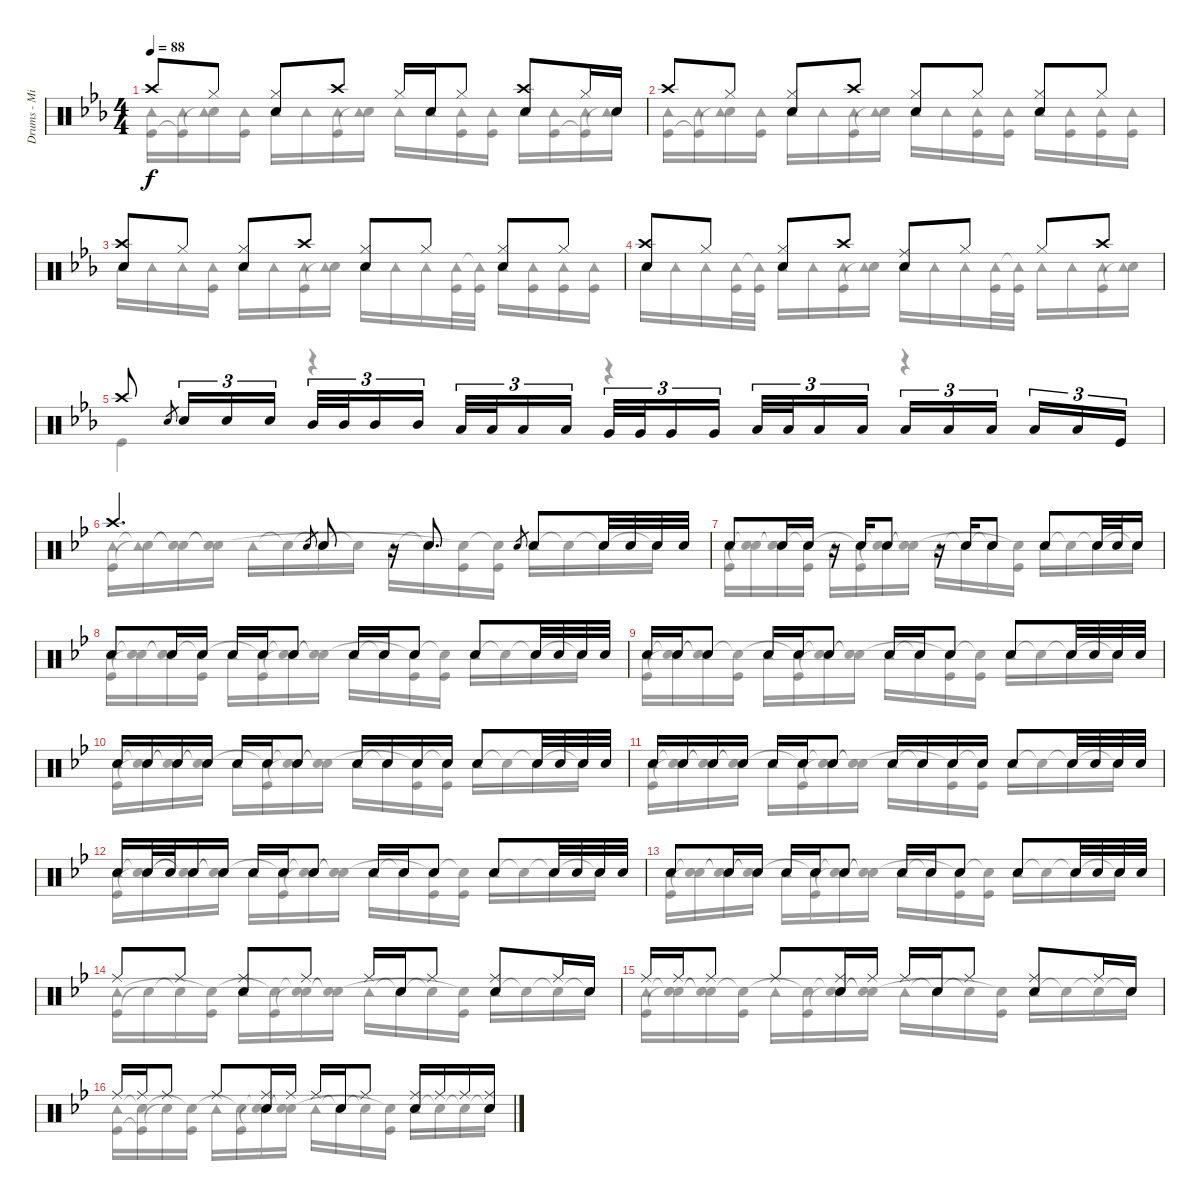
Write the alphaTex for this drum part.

\track ("Drums - Mike Portnoy" "Drums - Mi") {instrument percussion}
\staff {score}
\articulation defaults
\voice
\ts (4 4)
\tempo 88
\clef neutral
\ks eb "Crash high (hit)".8{dy f} "Hi-Hat (closed)".8
("Hi-Hat (closed)" "Snare (hit) 2").8 "Crash high (hit)".8 "Hi-Hat (closed)".16 "Snare (hit) 2".16 "Hi-Hat (closed)".8 ("Crash high (hit)" "Snare (hit) 2").8 "Hi-Hat (closed)".16 "Snare (hit) 2".16 |
"Crash high (hit)".8 "Hi-Hat (closed)".8 ("Hi-Hat (closed)" "Snare (hit) 2").8 "Crash high (hit)".8 ("Hi-Hat (closed)" "Snare (hit) 2").8 "Hi-Hat (closed)".8 ("Hi-Hat (closed)" "Snare (hit) 2").8 "Hi-Hat (closed)".8 |
("Crash high (hit)" "Snare (hit) 2").8 "Hi-Hat (closed)".8 ("Hi-Hat (closed)" "Snare (hit) 2").8 "Crash high (hit)".8 ("Hi-Hat (closed)" "Snare (hit) 2").8 "Hi-Hat (closed)".8 ("Hi-Hat (closed)" "Snare (hit) 2").8 "Hi-Hat (closed)".8 |
("Crash high (hit)" "Snare (hit) 2").8 "Hi-Hat (closed)".8 ("Hi-Hat (closed)" "Snare (hit) 2").8 "Crash high (hit)".8 ("Ride (middle)" "Snare (hit) 2").8 "Hi-Hat (closed)".8 "Hi-Hat (closed)".8 "Crash high (hit)".8 |
"Crash high (hit)".8 "Snare (hit) 2".8{gr} "Snare (hit) 2".16{tu (3 2)} "Snare (hit) 2".16{tu (3 2)} "Snare (hit) 2".16{tu (3 2)} "Mid Tom (hit)".32{tu (3 2)} "Mid Tom (hit)".32{tu (3 2)} "Mid Tom (hit)".16{tu (3 2)} "Mid Tom (hit)".16{tu (3 2) beam splitsecondary} "Low Tom (hit)".32{tu (3 2)} "Low Tom (hit)".32{tu (3 2)} "Low Tom (hit)".16{tu (3 2)} "Low Tom (hit)".16{tu (3 2)} "Very Low Tom (hit)".32{tu (3 2)} "Very Low Tom (hit)".32{tu (3 2)} "Very Low Tom (hit)".16{tu (3 2)} "Very Low Tom (hit)".16{tu (3 2) beam splitsecondary} "Low Floor Tom (hit)".32{tu (3 2)} "Low Floor Tom (hit)".32{tu (3 2)} "Low Floor Tom (hit)".16{tu (3 2)} "Low Floor Tom (hit)".16{tu (3 2)} "Low Floor Tom (hit)".16{tu (3 2)} "Low Floor Tom (hit)".16{tu (3 2)} "Low Floor Tom (hit)".16{tu (3 2) beam splitsecondary} "Low Floor Tom (hit)".16{tu (3 2)} "Low Floor Tom (hit)".16{tu (3 2)} "Kick (hit)".16{tu (3 2)} |
\ks bb "Crash high (hit)".4{d volume 10} "Snare (hit) 2".8{gr} "Snare (hit) 2".8
r.16 "Snare (hit) 2".8{d} "Snare (hit) 2".8{gr} "Snare (hit) 2".8 "Snare (hit) 2".32 "Snare (hit) 2".32 "Snare (hit) 2".32 "Snare (hit)".32 |
"Snare (hit) 2".8 "Snare (hit) 2".16 "Snare (hit) 2".16 r.16 "Snare (hit) 2".16 "Snare (hit) 2".8 r.16 "Snare (hit) 2".16 "Snare (hit) 2".8 "Snare (hit) 2".8 "Snare (hit) 2".32 "Snare (hit) 2".32 "Snare (hit) 2".16 |
"Snare (hit) 2".8 "Snare (hit) 2".16 "Snare (hit) 2".16 "Snare (hit) 2".16 "Snare (hit) 2".16 "Snare (hit) 2".8 "Snare (hit) 2".16 "Snare (hit) 2".16 "Snare (hit) 2".8 "Snare (hit) 2".8 "Snare (hit) 2".32 "Snare (hit) 2".32 "Snare (hit) 2".32 "Snare (hit) 2".32 |
"Snare (hit) 2".16 "Snare (hit) 2".16 "Snare (hit) 2".8 "Snare (hit) 2".16 "Snare (hit) 2".16 "Snare (hit) 2".8 "Snare (hit) 2".16 "Snare (hit) 2".16 "Snare (hit) 2".8 "Snare (hit) 2".8 "Snare (hit) 2".32 "Snare (hit) 2".32 "Snare (hit) 2".32 "Snare (hit) 2".32 |
"Snare (hit) 2".16 "Snare (hit) 2".16 "Snare (hit) 2".16 "Snare (hit) 2".16 "Snare (hit) 2".16 "Snare (hit) 2".16 "Snare (hit) 2".8 "Snare (hit) 2".16 "Snare (hit) 2".16 "Snare (hit) 2".16 "Snare (hit) 2".16 "Snare (hit) 2".8 "Snare (hit) 2".32 "Snare (hit) 2".32 "Snare (hit) 2".32 "Snare (hit) 2".32 |
"Snare (hit) 2".16 "Snare (hit) 2".16 "Snare (hit) 2".16 "Snare (hit) 2".16 "Snare (hit) 2".16 "Snare (hit) 2".16 "Snare (hit) 2".8 "Snare (hit) 2".16 "Snare (hit) 2".16 "Snare (hit) 2".16 "Snare (hit) 2".16 "Snare (hit) 2".8 "Snare (hit) 2".32 "Snare (hit) 2".32 "Snare (hit) 2".32 "Snare (hit) 2".32 |
"Snare (hit) 2".16 "Snare (hit) 2".32 "Snare (hit) 2".32 "Snare (hit) 2".16 "Snare (hit) 2".16 "Snare (hit) 2".16 "Snare (hit) 2".16 "Snare (hit) 2".8 "Snare (hit) 2".16 "Snare (hit) 2".16 "Snare (hit) 2".8 "Snare (hit) 2".8 "Snare (hit) 2".32 "Snare (hit) 2".32 "Snare (hit) 2".32 "Snare (hit) 2".32 |
"Snare (hit) 2".8 "Snare (hit) 2".16 "Snare (hit) 2".16 "Snare (hit) 2".16 "Snare (hit) 2".16 "Snare (hit) 2".8 "Snare (hit) 2".16 "Snare (hit) 2".16 "Snare (hit) 2".8 "Snare (hit) 2".8 "Snare (hit) 2".32 "Snare (hit) 2".32 "Snare (hit) 2".32 "Snare (hit) 2".32 |
"Ride (middle)".8 "Ride (middle)".8 ("Ride (middle)" "Snare (hit) 2").8 "Ride (middle)".8 "Ride (middle)".16 "Snare (hit) 2".16 "Ride (middle)".8 ("Ride (middle)" "Snare (hit) 2").8 "Ride (middle)".16 "Snare (hit) 2".16 |
"Ride (middle)".16 "Ride (middle)".16 "Ride (middle)".8 "Ride (middle)".8 ("Ride (middle)" "Snare (hit) 2").16 "Ride (middle)".16 "Ride (middle)".16 "Snare (hit) 2".16 "Ride (middle)".8 ("Ride (middle)" "Snare (hit) 2").8 "Ride (middle)".16 "Snare (hit) 2".16 |
"Ride (middle)".16 "Ride (middle)".16 "Ride (middle)".8 "Ride (middle)".8 ("Ride (middle)" "Snare (hit) 2").16 "Ride (middle)".16 "Ride (middle)".16 "Snare (hit) 2".16 "Ride (middle)".8 ("Ride (middle)" "Snare (hit) 2").16 "Ride (middle)".16 "Ride (middle)".16 ("Ride (middle)" "Snare (hit) 2").16
\voice
\clef neutral
\ottava regular
\simile none
\ks eb
("Kick (hit)" "Tambourine (hit)").16{dy f} ("Kick (hit)"{t} "Tambourine (hit)").16 ("Snare (hit)"{t} "Tambourine (hit)").16 ("Kick (hit)" "Tambourine (hit)").16 "Tambourine (hit)".16 "Tambourine (hit)".16 ("Kick (hit)" "Tambourine (hit)").16 ("Snare (hit)"{t} "Tambourine (hit)").16 "Tambourine (hit)".16 "Tambourine (hit)".16 ("Kick (hit)" "Tambourine (hit)").16 ("Kick (hit)" "Tambourine (hit)").16 "Tambourine (hit)".16 ("Kick (hit)" "Tambourine (hit)").16 ("Kick (hit)"{t} "Tambourine (hit)").16 ("Snare (hit)"{t} "Tambourine (hit)").16 |
("Kick (hit)" "Tambourine (hit)").16 ("Kick (hit)"{t} "Tambourine (hit)").16 ("Snare (hit)"{t} "Tambourine (hit)").16 ("Kick (hit)" "Tambourine (hit)").16 "Tambourine (hit)".16 "Tambourine (hit)".16 ("Kick (hit)" "Tambourine (hit)").16 ("Snare (hit)"{t} "Tambourine (hit)").16 "Tambourine (hit)".16 "Tambourine (hit)".16 ("Kick (hit)" "Tambourine (hit)").16 ("Kick (hit)" "Tambourine (hit)").16 "Tambourine (hit)".16 ("Kick (hit)" "Tambourine (hit)").16 ("Kick (hit)" "Tambourine (hit)").16 ("Kick (hit)" "Tambourine (hit)").16 |
"Tambourine (hit)".16 "Tambourine (hit)".16 "Tambourine (hit)".16 ("Kick (hit)" "Tambourine (hit)").16 "Tambourine (hit)".16 "Tambourine (hit)".16 ("Kick (hit)" "Tambourine (hit)").16 ("Snare (hit)"{t} "Tambourine (hit)").16 "Tambourine (hit)".16 "Tambourine (hit)".16 "Tambourine (hit)".16 ("Kick (hit)" "Tambourine (hit)").32 ("Kick (hit)" "Tambourine (hit)"{t}).32 "Tambourine (hit)".16 ("Kick (hit)" "Tambourine (hit)").16 ("Kick (hit)" "Tambourine (hit)").16 ("Kick (hit)" "Tambourine (hit)").16 |
"Tambourine (hit)".16 "Tambourine (hit)".16 "Tambourine (hit)".16 ("Kick (hit)" "Tambourine (hit)").32 ("Kick (hit)" "Tambourine (hit)"{t}).32 "Tambourine (hit)".16 "Tambourine (hit)".16 ("Kick (hit)" "Tambourine (hit)").16 ("Snare (hit)"{t} "Tambourine (hit)").16 "Tambourine (hit)".16 "Tambourine (hit)".16 "Tambourine (hit)".16 ("Kick (hit)" "Tambourine (hit)").32 ("Kick (hit)" "Tambourine (hit)"{t}).32 "Tambourine (hit)".16 "Tambourine (hit)".16 ("Kick (hit)" "Tambourine (hit)").16 ("Snare (hit)"{t} "Tambourine (hit)").16 |
"Kick (hit)".4 r.4 r.4 r.4 |
\ks bb
("Kick (hit)" "Tambourine (hit)").16 ("Snare (hit)"{t} "Tambourine (hit)"{t}).16 ("Snare (hit)"{t} "Snare (hit)"{t}).16 ("Snare (hit)"{t} "Snare (hit)"{t}).16 "Tambourine (hit)".16 "Snare (hit)"{t}.16 "Snare (hit)"{t}.16 "Snare (hit)"{t}.16 "Tambourine (hit)".16 "Snare (hit)"{t}.16 ("Kick (hit)" "Snare (hit)"{t}).16 ("Kick (hit)" "Snare (hit)"{t}).16 "Tambourine (hit)".16 "Snare (hit)"{t}.16 "Snare (hit)"{t}.16 "Snare (hit)"{t}.16 |
("Kick (hit)" "Tambourine (hit)").16 ("Snare (hit)"{t} "Snare (hit)"{t}).16 ("Snare (hit)"{t} "Snare (hit)"{t}).16 ("Kick (hit)" "Snare (hit)"{t}).16 "Tambourine (hit)".16 ("Kick (hit)" "Snare (hit)"{t}).16 ("Snare (hit)"{t} "Snare (hit)"{t}).16 ("Snare (hit)"{t} "Snare (hit)"{t}).16 "Tambourine (hit)".16 "Snare (hit)"{t}.16 "Snare (hit)"{t}.16 ("Kick (hit)" "Snare (hit)"{t}).16 "Tambourine (hit)".16 "Snare (hit)"{t}.16 "Snare (hit)"{t}.16 "Snare (hit)"{t}.16 |
("Kick (hit)" "Tambourine (hit)").16 ("Snare (hit)"{t} "Snare (hit)"{t}).16 ("Snare (hit)"{t} "Snare (hit)"{t}).16 ("Kick (hit)" "Snare (hit)"{t}).16 "Tambourine (hit)".16 ("Kick (hit)" "Snare (hit)"{t}).16 ("Snare (hit)"{t} "Snare (hit)"{t}).16 ("Snare (hit)"{t} "Snare (hit)"{t}).16 "Tambourine (hit)".16 "Snare (hit)"{t}.16 ("Kick (hit)" "Snare (hit)"{t}).16 ("Kick (hit)" "Snare (hit)"{t}).16 "Tambourine (hit)".16 "Snare (hit)"{t}.16 "Snare (hit)"{t}.16 "Snare (hit)"{t}.16 |
("Kick (hit)" "Tambourine (hit)").16 ("Snare (hit)"{t} "Snare (hit)"{t}).16 ("Snare (hit)"{t} "Snare (hit)"{t}).16 ("Kick (hit)" "Snare (hit)"{t}).16 "Tambourine (hit)".16 ("Kick (hit)" "Snare (hit)"{t}).16 ("Snare (hit)"{t} "Snare (hit)"{t}).16 ("Snare (hit)"{t} "Snare (hit)"{t}).16 "Tambourine (hit)".16 "Snare (hit)"{t}.16 ("Kick (hit)" "Snare (hit)"{t}).16 ("Kick (hit)" "Snare (hit)"{t}).16 "Tambourine (hit)".16 "Snare (hit)"{t}.16 "Snare (hit)"{t}.16 "Snare (hit)"{t}.16 |
("Kick (hit)" "Tambourine (hit)").16 ("Snare (hit)"{t} "Snare (hit)"{t}).16 ("Snare (hit)"{t} "Snare (hit)"{t}).16 ("Snare (hit)"{t} "Snare (hit)"{t}).16 "Tambourine (hit)".16 ("Kick (hit)" "Snare (hit)"{t}).16 ("Snare (hit)"{t} "Snare (hit)"{t}).16 ("Snare (hit)"{t} "Snare (hit)"{t}).16 "Tambourine (hit)".16 "Snare (hit)"{t}.16 ("Kick (hit)" "Snare (hit)"{t}).16 ("Kick (hit)" "Snare (hit)"{t}).16 "Tambourine (hit)".16 "Snare (hit)"{t}.16 "Snare (hit)"{t}.16 "Snare (hit)"{t}.16 |
("Kick (hit)" "Tambourine (hit)").16 ("Snare (hit)"{t} "Snare (hit)"{t}).16 ("Snare (hit)"{t} "Snare (hit)"{t}).16 ("Snare (hit)"{t} "Snare (hit)"{t}).16 "Tambourine (hit)".16 ("Kick (hit)" "Snare (hit)"{t}).16 ("Snare (hit)"{t} "Snare (hit)"{t}).16 ("Snare (hit)"{t} "Snare (hit)"{t}).16 "Tambourine (hit)".16 "Snare (hit)"{t}.16 ("Kick (hit)" "Snare (hit)"{t}).16 ("Kick (hit)" "Snare (hit)"{t}).16 "Tambourine (hit)".16 "Snare (hit)"{t}.16 "Snare (hit)"{t}.16 "Snare (hit)"{t}.16 |
("Kick (hit)" "Tambourine (hit)").16 ("Snare (hit)"{t} "Snare (hit)"{t}).16 ("Snare (hit)"{t} "Snare (hit)"{t}).16 ("Snare (hit)"{t} "Snare (hit)"{t}).16 "Tambourine (hit)".16 ("Kick (hit)" "Snare (hit)"{t}).16 ("Snare (hit)"{t} "Snare (hit)"{t}).16 ("Snare (hit)"{t} "Snare (hit)"{t}).16 "Tambourine (hit)".16 "Snare (hit)"{t}.16 ("Kick (hit)" "Snare (hit)"{t}).16 ("Kick (hit)" "Snare (hit)"{t}).16 "Tambourine (hit)".16 "Snare (hit)"{t}.16 "Snare (hit)"{t}.16 "Snare (hit)"{t}.16 |
("Kick (hit)" "Tambourine (hit)").16 ("Snare (hit)"{t} "Snare (hit)"{t}).16 ("Snare (hit)"{t} "Snare (hit)"{t}).16 ("Snare (hit)"{t} "Snare (hit)"{t}).16 "Tambourine (hit)".16 ("Kick (hit)" "Snare (hit)"{t}).16 ("Snare (hit)"{t} "Snare (hit)"{t}).16 ("Snare (hit)"{t} "Snare (hit)"{t}).16 "Tambourine (hit)".16 "Snare (hit)"{t}.16 ("Kick (hit)" "Snare (hit)"{t}).16 ("Kick (hit)" "Snare (hit)"{t}).16 "Tambourine (hit)".16 "Snare (hit)"{t}.16 "Snare (hit)"{t}.16 "Snare (hit)"{t}.16 |
("Kick (hit)" "Tambourine (hit)").16 "Snare (hit)"{t}.16 "Snare (hit)"{t}.16 ("Kick (hit)" "Snare (hit)"{t}).16 "Tambourine (hit)".16 ("Kick (hit)" "Snare (hit)"{t}).16 ("Snare (hit)"{t} "Snare (hit)"{t}).16 ("Snare (hit)"{t} "Snare (hit)"{t}).16 "Tambourine (hit)".16 "Snare (hit)"{t}.16 "Snare (hit)"{t}.16 ("Kick (hit)" "Snare (hit)"{t}).16 "Tambourine (hit)".16 "Snare (hit)"{t}.16 "Snare (hit)"{t}.16 "Snare (hit)"{t}.16 |
("Kick (hit)" "Tambourine (hit)").16 ("Snare (hit)"{t} "Snare (hit)"{t}).16 ("Snare (hit)"{t} "Snare (hit)"{t}).16 ("Kick (hit)" "Snare (hit)"{t}).16 "Tambourine (hit)".16 ("Kick (hit)" "Snare (hit)"{t}).16 ("Snare (hit)"{t} "Snare (hit)"{t}).16 ("Snare (hit)"{t} "Snare (hit)"{t}).16 "Tambourine (hit)".16 "Snare (hit)"{t}.16 "Snare (hit)"{t}.16 ("Kick (hit)" "Snare (hit)"{t}).16 "Tambourine (hit)".16 "Snare (hit)"{t}.16 "Snare (hit)"{t}.16 "Snare (hit)"{t}.16 |
("Kick (hit)" "Tambourine (hit)").16 ("Kick (hit)"{t} "Snare (hit)"{t}).16 "Snare (hit)"{t}.16 ("Kick (hit)" "Snare (hit)"{t}).16 "Tambourine (hit)".16 ("Kick (hit)" "Snare (hit)"{t}).16 ("Snare (hit)"{t} "Snare (hit)"{t}).16 ("Snare (hit)"{t} "Snare (hit)"{t}).16 "Tambourine (hit)".16 "Snare (hit)"{t}.16 "Snare (hit)"{t}.16 ("Kick (hit)" "Snare (hit)"{t}).16 "Tambourine (hit)".16 "Snare (hit)"{t}.16 "Snare (hit)"{t}.16 "Snare (hit)"{t}.16
